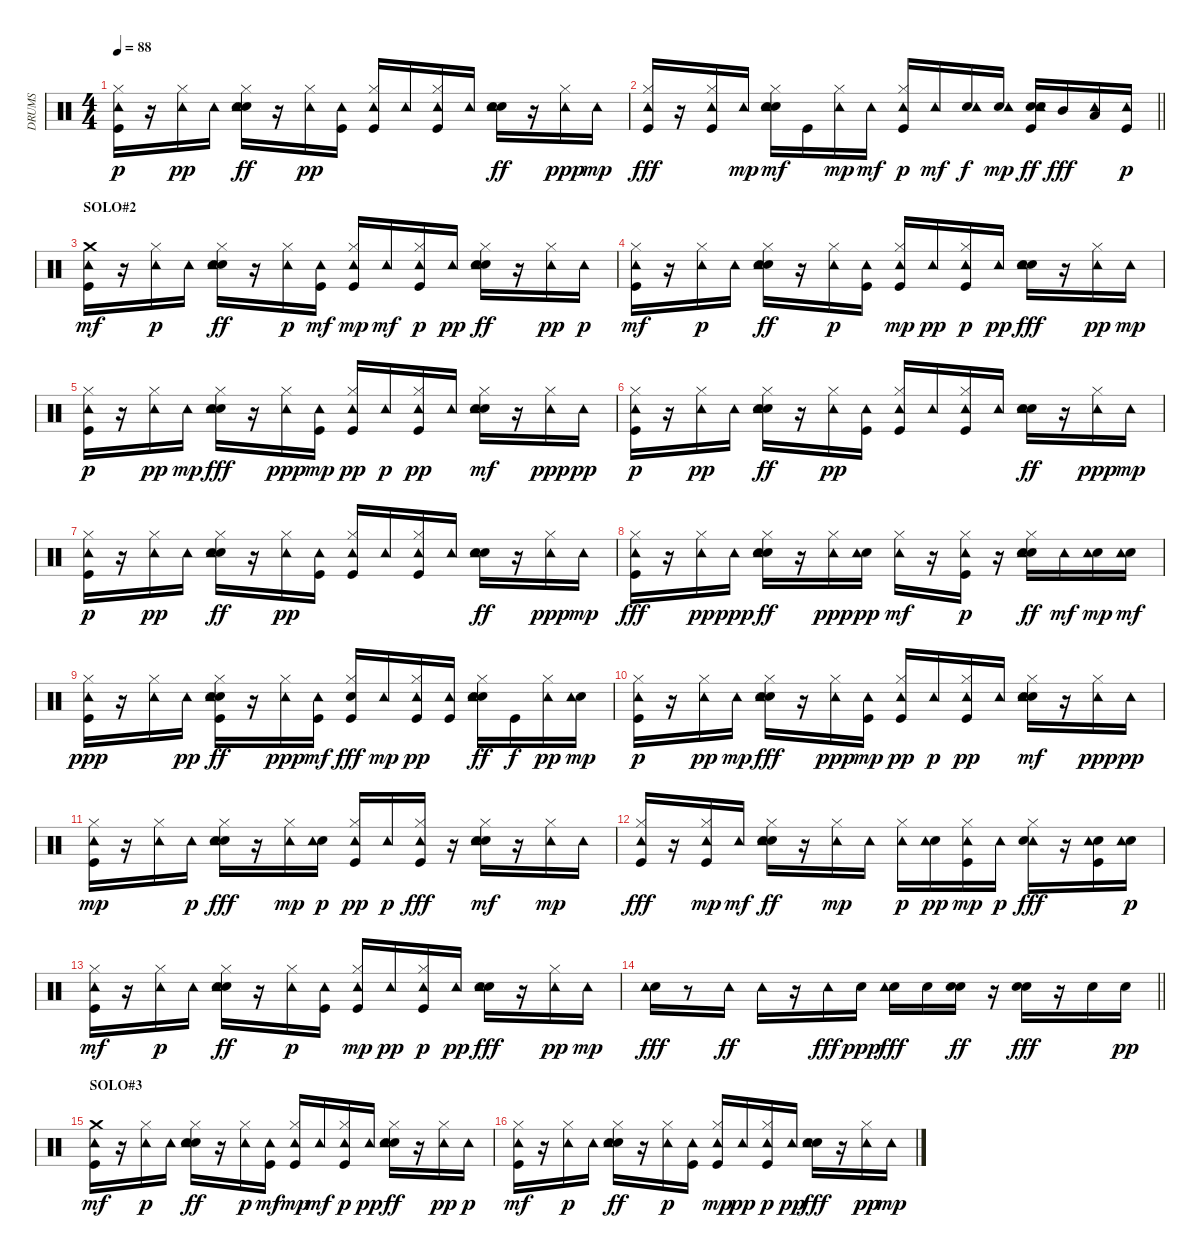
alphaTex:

\track ("DRUMS" "DRUMS") {instrument percussion}
\staff {score}
\articulation defaults
\ts (4 4)
\tempo 88
\clef neutral
\ks c
("Kick (hit)" "Hi-Hat (closed)" "Tambourine (hit)").16{dy p} r.16 ("Hi-Hat (closed)" "Tambourine (hit)").16{dy pp} "Tambourine (hit)".16 ("Electric Snare (hit)" "Hi-Hat (closed)" "Tambourine (hit)" "Hand Clap (hit)").16{dy ff} r.16 ("Hi-Hat (closed)" "Tambourine (hit)").16{dy pp} ("Kick (hit)" "Tambourine (hit)").16 ("Kick (hit)" "Hi-Hat (closed)" "Tambourine (hit)").16 "Tambourine (hit)".16 ("Kick (hit)" "Hi-Hat (closed)" "Tambourine (hit)").16 "Tambourine (hit)".16 ("Electric Snare (hit)" "Tambourine (hit)" "Hand Clap (hit)").16{dy ff} r.16 ("Hi-Hat (closed)" "Tambourine (hit)").16{dy ppp} "Tambourine (hit)".16{dy mp} |
\barLineRight lightlight
("Kick (hit)" "Hi-Hat (closed)" "Tambourine (hit)").16{dy fff} r.16 ("Kick (hit)" "Hi-Hat (closed)" "Tambourine (hit)").16 "Tambourine (hit)".16{dy mp} ("Electric Snare (hit)" "Hi-Hat (closed)" "Tambourine (hit)" "Hand Clap (hit)").16{dy mf} "Kick (hit)".16 ("Hi-Hat (closed)" "Tambourine (hit)").16{dy mp} "Tambourine (hit)".16{dy mf} ("Kick (hit)" "Hi-Hat (closed)" "Tambourine (hit)").16{dy p} "Tambourine (hit)".16{dy mf} ("Electric Snare (hit)" "Tambourine (hit)").16{dy f} ("Electric Snare (hit)" "Tambourine (hit)").16{dy mp} ("Kick (hit)" "Electric Snare (hit)" "Tambourine (hit)" "Hand Clap (hit)").16{dy ff} "Mid Tom (hit)".16{dy fff} ("Low Floor Tom (hit)" "Tambourine (hit)").16 ("Kick (hit)" "Tambourine (hit)").16{dy p} |
\section ("" "SOLO#2")
("Kick (hit)" "Crash medium (hit)" "Tambourine (hit)").16{dy mf} r.16 ("Hi-Hat (closed)" "Tambourine (hit)").16{dy p} "Tambourine (hit)".16 ("Electric Snare (hit)" "Hi-Hat (closed)" "Tambourine (hit)" "Hand Clap (hit)").16{dy ff} r.16 ("Hi-Hat (closed)" "Tambourine (hit)").16{dy p} ("Kick (hit)" "Tambourine (hit)").16{dy mf} ("Kick (hit)" "Hi-Hat (closed)" "Tambourine (hit)").16{dy mp} "Tambourine (hit)".16{dy mf} ("Kick (hit)" "Hi-Hat (closed)" "Tambourine (hit)").16{dy p} "Tambourine (hit)".16{dy pp} ("Electric Snare (hit)" "Hi-Hat (closed)" "Tambourine (hit)" "Hand Clap (hit)").16{dy ff} r.16 ("Hi-Hat (closed)" "Tambourine (hit)").16{dy pp} "Tambourine (hit)".16{dy p} |
("Kick (hit)" "Hi-Hat (closed)" "Tambourine (hit)").16{dy mf} r.16 ("Hi-Hat (closed)" "Tambourine (hit)").16{dy p} "Tambourine (hit)".16 ("Electric Snare (hit)" "Hi-Hat (closed)" "Tambourine (hit)" "Hand Clap (hit)").16{dy ff} r.16 ("Hi-Hat (closed)" "Tambourine (hit)").16{dy p} ("Kick (hit)" "Tambourine (hit)").16 ("Kick (hit)" "Hi-Hat (closed)" "Tambourine (hit)").16{dy mp} "Tambourine (hit)".16{dy pp} ("Kick (hit)" "Hi-Hat (closed)" "Tambourine (hit)").16{dy p} "Tambourine (hit)".16{dy pp} ("Electric Snare (hit)" "Tambourine (hit)" "Hand Clap (hit)").16{dy fff} r.16 ("Hi-Hat (closed)" "Tambourine (hit)").16{dy pp} "Tambourine (hit)".16{dy mp} |
("Kick (hit)" "Hi-Hat (closed)" "Tambourine (hit)").16{dy p} r.16 ("Hi-Hat (closed)" "Tambourine (hit)").16{dy pp} "Tambourine (hit)".16{dy mp} ("Electric Snare (hit)" "Hi-Hat (closed)" "Tambourine (hit)" "Hand Clap (hit)").16{dy fff} r.16 ("Hi-Hat (closed)" "Tambourine (hit)").16{dy ppp} ("Kick (hit)" "Tambourine (hit)").16{dy mp} ("Kick (hit)" "Hi-Hat (closed)" "Tambourine (hit)").16{dy pp} "Tambourine (hit)".16{dy p} ("Kick (hit)" "Hi-Hat (closed)" "Tambourine (hit)").16{dy pp} "Tambourine (hit)".16 ("Electric Snare (hit)" "Hi-Hat (closed)" "Tambourine (hit)" "Hand Clap (hit)").16{dy mf} r.16 ("Hi-Hat (closed)" "Tambourine (hit)").16{dy ppp} "Tambourine (hit)".16{dy pp} |
("Kick (hit)" "Hi-Hat (closed)" "Tambourine (hit)").16{dy p} r.16 ("Hi-Hat (closed)" "Tambourine (hit)").16{dy pp} "Tambourine (hit)".16 ("Electric Snare (hit)" "Hi-Hat (closed)" "Tambourine (hit)" "Hand Clap (hit)").16{dy ff} r.16 ("Hi-Hat (closed)" "Tambourine (hit)").16{dy pp} ("Kick (hit)" "Tambourine (hit)").16 ("Kick (hit)" "Hi-Hat (closed)" "Tambourine (hit)").16 "Tambourine (hit)".16 ("Kick (hit)" "Hi-Hat (closed)" "Tambourine (hit)").16 "Tambourine (hit)".16 ("Electric Snare (hit)" "Tambourine (hit)" "Hand Clap (hit)").16{dy ff} r.16 ("Hi-Hat (closed)" "Tambourine (hit)").16{dy ppp} "Tambourine (hit)".16{dy mp} |
("Kick (hit)" "Hi-Hat (closed)" "Tambourine (hit)").16{dy p} r.16 ("Hi-Hat (closed)" "Tambourine (hit)").16{dy pp} "Tambourine (hit)".16 ("Electric Snare (hit)" "Hi-Hat (closed)" "Tambourine (hit)" "Hand Clap (hit)").16{dy ff} r.16 ("Hi-Hat (closed)" "Tambourine (hit)").16{dy pp} ("Kick (hit)" "Tambourine (hit)").16 ("Kick (hit)" "Hi-Hat (closed)" "Tambourine (hit)").16 "Tambourine (hit)".16 ("Kick (hit)" "Hi-Hat (closed)" "Tambourine (hit)").16 "Tambourine (hit)".16 ("Electric Snare (hit)" "Tambourine (hit)" "Hand Clap (hit)").16{dy ff} r.16 ("Hi-Hat (closed)" "Tambourine (hit)").16{dy ppp} "Tambourine (hit)".16{dy mp} |
("Kick (hit)" "Hi-Hat (closed)" "Tambourine (hit)").16{dy fff} r.16 ("Hi-Hat (closed)" "Tambourine (hit)").16{dy pp} "Tambourine (hit)".16{dy ppp} ("Electric Snare (hit)" "Hi-Hat (closed)" "Tambourine (hit)" "Hand Clap (hit)").16{dy ff} r.16 ("Hi-Hat (closed)" "Tambourine (hit)").16{dy ppp} ("Electric Snare (hit)" "Tambourine (hit)").16{dy pp} ("Hi-Hat (closed)" "Tambourine (hit)").16{dy mf} r.16 ("Kick (hit)" "Hi-Hat (closed)" "Tambourine (hit)").16{dy p} r.16 ("Electric Snare (hit)" "Hi-Hat (closed)" "Tambourine (hit)" "Hand Clap (hit)").16{dy ff} "Tambourine (hit)".16{dy mf} ("Electric Snare (hit)" "Tambourine (hit)").16{dy mp} ("Electric Snare (hit)" "Tambourine (hit)").16{dy mf} |
("Kick (hit)" "Hi-Hat (closed)" "Tambourine (hit)").16{dy ppp} r.16 ("Hi-Hat (closed)" "Tambourine (hit)").16 "Tambourine (hit)".16{dy pp} ("Kick (hit)" "Electric Snare (hit)" "Hi-Hat (closed)" "Tambourine (hit)" "Hand Clap (hit)").16{dy ff} r.16 ("Hi-Hat (closed)" "Tambourine (hit)").16{dy ppp} ("Kick (hit)" "Tambourine (hit)").16{dy mf} ("Kick (hit)" "Electric Snare (hit)" "Hi-Hat (closed)").16{dy fff} "Tambourine (hit)".16{dy mp} ("Kick (hit)" "Hi-Hat (closed)" "Tambourine (hit)").16{dy pp} ("Kick (hit)" "Tambourine (hit)").16 ("Electric Snare (hit)" "Hi-Hat (closed)" "Tambourine (hit)" "Hand Clap (hit)").16{dy ff} "Kick (hit)".16{dy f} ("Hi-Hat (closed)" "Tambourine (hit)").16{dy pp} ("Electric Snare (hit)" "Tambourine (hit)").16{dy mp} |
("Kick (hit)" "Hi-Hat (closed)" "Tambourine (hit)").16{dy p} r.16 ("Hi-Hat (closed)" "Tambourine (hit)").16{dy pp} "Tambourine (hit)".16{dy mp} ("Electric Snare (hit)" "Hi-Hat (closed)" "Tambourine (hit)" "Hand Clap (hit)").16{dy fff} r.16 ("Hi-Hat (closed)" "Tambourine (hit)").16{dy ppp} ("Kick (hit)" "Tambourine (hit)").16{dy mp} ("Kick (hit)" "Hi-Hat (closed)" "Tambourine (hit)").16{dy pp} "Tambourine (hit)".16{dy p} ("Kick (hit)" "Hi-Hat (closed)" "Tambourine (hit)").16{dy pp} "Tambourine (hit)".16 ("Electric Snare (hit)" "Hi-Hat (closed)" "Tambourine (hit)" "Hand Clap (hit)").16{dy mf} r.16 ("Hi-Hat (closed)" "Tambourine (hit)").16{dy ppp} "Tambourine (hit)".16{dy pp} |
("Kick (hit)" "Hi-Hat (closed)" "Tambourine (hit)").16{dy mp} r.16 ("Hi-Hat (closed)" "Tambourine (hit)").16 "Tambourine (hit)".16{dy p} ("Electric Snare (hit)" "Hi-Hat (closed)" "Tambourine (hit)" "Hand Clap (hit)").16{dy fff} r.16 ("Hi-Hat (closed)" "Tambourine (hit)").16{dy mp} ("Electric Snare (hit)" "Tambourine (hit)").16{dy p} ("Kick (hit)" "Hi-Hat (closed)" "Tambourine (hit)").16{dy pp} "Tambourine (hit)".16{dy p} ("Kick (hit)" "Hi-Hat (closed)" "Tambourine (hit)").16{dy fff} r.16 ("Electric Snare (hit)" "Hi-Hat (closed)" "Tambourine (hit)" "Hand Clap (hit)").16{dy mf} r.16 ("Hi-Hat (closed)" "Tambourine (hit)").16{dy mp} "Tambourine (hit)".16 |
("Kick (hit)" "Hi-Hat (closed)" "Tambourine (hit)").16{dy fff} r.16 ("Kick (hit)" "Hi-Hat (closed)" "Tambourine (hit)").16{dy mp} "Tambourine (hit)".16{dy mf} ("Electric Snare (hit)" "Hi-Hat (closed)" "Tambourine (hit)" "Hand Clap (hit)").16{dy ff} r.16 ("Hi-Hat (closed)" "Tambourine (hit)").16{dy mp} "Tambourine (hit)".16 ("Hi-Hat (closed)" "Tambourine (hit)").16{dy p} ("Electric Snare (hit)" "Tambourine (hit)").16{dy pp} ("Kick (hit)" "Hi-Hat (closed)" "Tambourine (hit)").16{dy mp} "Tambourine (hit)".16{dy p} ("Hi-Hat (closed)" "Tambourine (hit)" "Hand Clap (hit)").16{dy fff} r.16 ("Kick (hit)" "Electric Snare (hit)" "Tambourine (hit)").16 ("Electric Snare (hit)" "Tambourine (hit)").16{dy p} |
("Kick (hit)" "Hi-Hat (closed)" "Tambourine (hit)").16{dy mf} r.16 ("Hi-Hat (closed)" "Tambourine (hit)").16{dy p} "Tambourine (hit)".16 ("Electric Snare (hit)" "Hi-Hat (closed)" "Tambourine (hit)" "Hand Clap (hit)").16{dy ff} r.16 ("Hi-Hat (closed)" "Tambourine (hit)").16{dy p} ("Kick (hit)" "Tambourine (hit)").16 ("Kick (hit)" "Hi-Hat (closed)" "Tambourine (hit)").16{dy mp} "Tambourine (hit)".16{dy pp} ("Kick (hit)" "Hi-Hat (closed)" "Tambourine (hit)").16{dy p} "Tambourine (hit)".16{dy pp} ("Electric Snare (hit)" "Tambourine (hit)" "Hand Clap (hit)").16{dy fff} r.16 ("Hi-Hat (closed)" "Tambourine (hit)").16{dy pp} "Tambourine (hit)".16{dy mp} |
\barLineRight lightlight
("Electric Snare (hit)" "Tambourine (hit)").16{dy fff} r.8 "Tambourine (hit)".16{dy ff} "Tambourine (hit)".16 r.16 "Tambourine (hit)".16{dy fff} "Electric Snare (hit)".16{dy ppp} ("Electric Snare (hit)" "Tambourine (hit)").16{dy fff} "Electric Snare (hit)".16 ("Electric Snare (hit)" "Hand Clap (hit)").16{dy ff} r.16 ("Electric Snare (hit)" "Hand Clap (hit)").16{dy fff} r.16 "Hand Clap (hit)".16 "Electric Snare (hit)".16{dy pp} |
\section ("" "SOLO#3")
("Kick (hit)" "Crash medium (hit)" "Tambourine (hit)").16{dy mf} r.16 ("Hi-Hat (closed)" "Tambourine (hit)").16{dy p} "Tambourine (hit)".16 ("Electric Snare (hit)" "Hi-Hat (closed)" "Tambourine (hit)" "Hand Clap (hit)").16{dy ff} r.16 ("Hi-Hat (closed)" "Tambourine (hit)").16{dy p} ("Kick (hit)" "Tambourine (hit)").16{dy mf} ("Kick (hit)" "Hi-Hat (closed)" "Tambourine (hit)").16{dy mp} "Tambourine (hit)".16{dy mf} ("Kick (hit)" "Hi-Hat (closed)" "Tambourine (hit)").16{dy p} "Tambourine (hit)".16{dy pp} ("Electric Snare (hit)" "Hi-Hat (closed)" "Tambourine (hit)" "Hand Clap (hit)").16{dy ff} r.16 ("Hi-Hat (closed)" "Tambourine (hit)").16{dy pp} "Tambourine (hit)".16{dy p} |
("Kick (hit)" "Hi-Hat (closed)" "Tambourine (hit)").16{dy mf} r.16 ("Hi-Hat (closed)" "Tambourine (hit)").16{dy p} "Tambourine (hit)".16 ("Electric Snare (hit)" "Hi-Hat (closed)" "Tambourine (hit)" "Hand Clap (hit)").16{dy ff} r.16 ("Hi-Hat (closed)" "Tambourine (hit)").16{dy p} ("Kick (hit)" "Tambourine (hit)").16 ("Kick (hit)" "Hi-Hat (closed)" "Tambourine (hit)").16{dy mp} "Tambourine (hit)".16{dy pp} ("Kick (hit)" "Hi-Hat (closed)" "Tambourine (hit)").16{dy p} "Tambourine (hit)".16{dy pp} ("Electric Snare (hit)" "Tambourine (hit)" "Hand Clap (hit)").16{dy fff} r.16 ("Hi-Hat (closed)" "Tambourine (hit)").16{dy pp} "Tambourine (hit)".16{dy mp}
